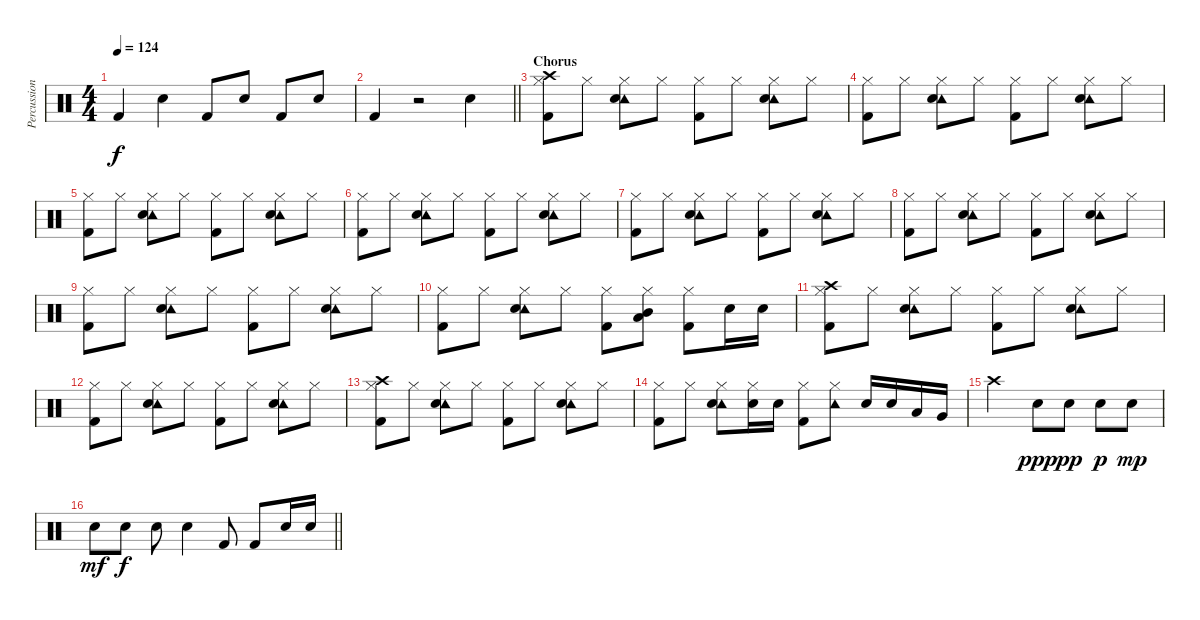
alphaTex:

\track ("Percussion" "Percussion") {instrument percussion}
\staff {score}
\articulation defaults
\ts (4 4)
\tempo 124
\clef neutral
\ks c "Kick (hit) 2".4{dy f} "Snare (hit) 2".4 "Kick (hit) 2".8 "Snare (hit) 2".8 "Kick (hit) 2".8 "Snare (hit) 2".8
|
\barLineRight lightlight "Kick (hit) 2".4
r.2 "Snare (hit) 2".4 |
\section ("" "Chorus")
("Hi-Hat (closed)" "Crash high (hit)" "Kick (hit) 2").8 "Hi-Hat (closed)".8 ("Hi-Hat (closed)" "Tambourine (hit)" "Snare (hit) 2").8 "Hi-Hat (closed)".8 ("Hi-Hat (closed)" "Kick (hit) 2").8 "Hi-Hat (closed)".8 ("Hi-Hat (closed)" "Tambourine (hit)" "Snare (hit) 2").8 "Hi-Hat (closed)".8 |
("Hi-Hat (closed)" "Kick (hit) 2").8 "Hi-Hat (closed)".8 ("Hi-Hat (closed)" "Tambourine (hit)" "Snare (hit) 2").8 "Hi-Hat (closed)".8 ("Hi-Hat (closed)" "Kick (hit) 2").8 "Hi-Hat (closed)".8 ("Hi-Hat (closed)" "Tambourine (hit)" "Snare (hit) 2").8 "Hi-Hat (closed)".8 |
("Hi-Hat (closed)" "Kick (hit) 2").8 "Hi-Hat (closed)".8 ("Hi-Hat (closed)" "Tambourine (hit)" "Snare (hit) 2").8 "Hi-Hat (closed)".8 ("Hi-Hat (closed)" "Kick (hit) 2").8 "Hi-Hat (closed)".8 ("Hi-Hat (closed)" "Tambourine (hit)" "Snare (hit) 2").8 "Hi-Hat (closed)".8 |
("Hi-Hat (closed)" "Kick (hit) 2").8 "Hi-Hat (closed)".8 ("Hi-Hat (closed)" "Tambourine (hit)" "Snare (hit) 2").8 "Hi-Hat (closed)".8 ("Hi-Hat (closed)" "Kick (hit) 2").8 "Hi-Hat (closed)".8 ("Hi-Hat (closed)" "Tambourine (hit)" "Snare (hit) 2").8 "Hi-Hat (closed)".8 |
("Hi-Hat (closed)" "Kick (hit) 2").8 "Hi-Hat (closed)".8 ("Hi-Hat (closed)" "Tambourine (hit)" "Snare (hit) 2").8 "Hi-Hat (closed)".8 ("Hi-Hat (closed)" "Kick (hit) 2").8 "Hi-Hat (closed)".8 ("Hi-Hat (closed)" "Tambourine (hit)" "Snare (hit) 2").8 "Hi-Hat (closed)".8 |
("Hi-Hat (closed)" "Kick (hit) 2").8 "Hi-Hat (closed)".8 ("Hi-Hat (closed)" "Tambourine (hit)" "Snare (hit) 2").8 "Hi-Hat (closed)".8 ("Hi-Hat (closed)" "Kick (hit) 2").8 "Hi-Hat (closed)".8 ("Hi-Hat (closed)" "Tambourine (hit)" "Snare (hit) 2").8 "Hi-Hat (closed)".8 |
("Hi-Hat (closed)" "Kick (hit) 2").8 "Hi-Hat (closed)".8 ("Hi-Hat (closed)" "Tambourine (hit)" "Snare (hit) 2").8 "Hi-Hat (closed)".8 ("Hi-Hat (closed)" "Kick (hit) 2").8 "Hi-Hat (closed)".8 ("Hi-Hat (closed)" "Tambourine (hit)" "Snare (hit) 2").8 "Hi-Hat (closed)".8 |
("Hi-Hat (closed)" "Kick (hit) 2").8 "Hi-Hat (closed)".8 ("Hi-Hat (closed)" "Tambourine (hit)" "Snare (hit) 2").8 "Hi-Hat (closed)".8 ("Hi-Hat (closed)" "Kick (hit) 2").8 ("Hi-Hat (closed)" "Mid Tom (hit)" "Low Tom (hit)").8 ("Hi-Hat (closed)" "Kick (hit) 2").8 "Snare (hit) 2".16 "Snare (hit) 2".16 |
("Hi-Hat (closed)" "Crash high (hit)" "Kick (hit) 2").8 "Hi-Hat (closed)".8 ("Hi-Hat (closed)" "Tambourine (hit)" "Snare (hit) 2").8 "Hi-Hat (closed)".8 ("Hi-Hat (closed)" "Kick (hit) 2").8 "Hi-Hat (closed)".8 ("Hi-Hat (closed)" "Tambourine (hit)" "Snare (hit) 2").8 "Hi-Hat (closed)".8 |
("Hi-Hat (closed)" "Kick (hit) 2").8 "Hi-Hat (closed)".8 ("Hi-Hat (closed)" "Tambourine (hit)" "Snare (hit) 2").8 "Hi-Hat (closed)".8 ("Hi-Hat (closed)" "Kick (hit) 2").8 "Hi-Hat (closed)".8 ("Hi-Hat (closed)" "Tambourine (hit)" "Snare (hit) 2").8 "Hi-Hat (closed)".8 |
("Hi-Hat (closed)" "Crash high (hit)" "Kick (hit) 2").8 "Hi-Hat (closed)".8 ("Hi-Hat (closed)" "Tambourine (hit)" "Snare (hit) 2").8 "Hi-Hat (closed)".8 ("Hi-Hat (closed)" "Kick (hit) 2").8 "Hi-Hat (closed)".8 ("Hi-Hat (closed)" "Tambourine (hit)" "Snare (hit) 2").8 "Hi-Hat (closed)".8 |
("Hi-Hat (closed)" "Kick (hit) 2").8 "Hi-Hat (closed)".8 ("Hi-Hat (closed)" "Tambourine (hit)" "Snare (hit) 2").8 ("Hi-Hat (closed)" "Snare (hit) 2").16 "Snare (hit) 2".16 ("Hi-Hat (closed)" "Kick (hit) 2").8 ("Hi-Hat (closed)" "Tambourine (hit)").8 "Snare (hit) 2".16 "Snare (hit) 2".16 "Low Tom (hit)".16 "Very Low Tom (hit)".16 |
"Crash high (hit)".2 "Snare (hit) 2".8{dy ppp} "Snare (hit) 2".8{dy pp} "Snare (hit) 2".8{dy p} "Snare (hit) 2".8{dy mp} |
\barLineRight lightlight "Snare (hit) 2".8{dy mf} "Snare (hit) 2".8{dy f} "Snare (hit) 2".8 "Snare (hit) 2".4 "Kick (hit) 2".8 "Kick (hit) 2".8 "Snare (hit) 2".16 "Snare (hit) 2".16
